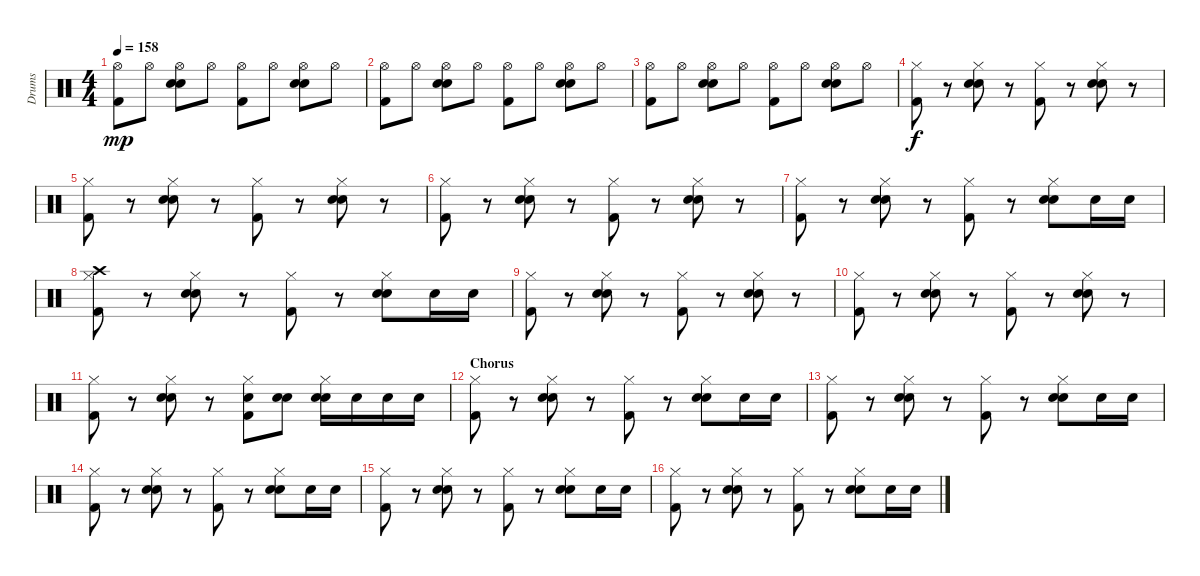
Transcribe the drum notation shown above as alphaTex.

\track ("Drums" "Drums") {instrument percussion}
\staff {score}
\articulation defaults
\ts (4 4)
\tempo 158
\clef neutral
\ks c
("Hi-Hat (open)" "Kick (hit) 2").8{dy mp} "Hi-Hat (open)".8 ("Hi-Hat (open)" "Snare (hit) 2" "Snare (hit) 2").8 "Hi-Hat (open)".8 ("Hi-Hat (open)" "Kick (hit) 2").8 "Hi-Hat (open)".8 ("Hi-Hat (open)" "Snare (hit) 2" "Snare (hit) 2").8 "Hi-Hat (open)".8 |
("Hi-Hat (open)" "Kick (hit) 2").8 "Hi-Hat (open)".8 ("Hi-Hat (open)" "Snare (hit) 2" "Snare (hit) 2").8 "Hi-Hat (open)".8 ("Hi-Hat (open)" "Kick (hit) 2").8 "Hi-Hat (open)".8 ("Hi-Hat (open)" "Snare (hit) 2" "Snare (hit) 2").8 "Hi-Hat (open)".8 |
("Hi-Hat (open)" "Kick (hit) 2").8 "Hi-Hat (open)".8 ("Hi-Hat (open)" "Snare (hit) 2" "Snare (hit) 2").8 "Hi-Hat (open)".8 ("Hi-Hat (open)" "Kick (hit) 2").8 "Hi-Hat (open)".8 ("Hi-Hat (open)" "Snare (hit) 2" "Snare (hit) 2").8 "Hi-Hat (open)".8 |
("Hi-Hat (closed)" "Kick (hit) 2").8{dy f} r.8 ("Hi-Hat (closed)" "Snare (hit) 2" "Snare (hit) 2").8 r.8 ("Hi-Hat (closed)" "Kick (hit) 2").8 r.8 ("Hi-Hat (closed)" "Snare (hit) 2" "Snare (hit) 2").8 r.8 |
("Hi-Hat (closed)" "Kick (hit) 2").8 r.8 ("Hi-Hat (closed)" "Snare (hit) 2" "Snare (hit) 2").8 r.8 ("Hi-Hat (closed)" "Kick (hit) 2").8 r.8 ("Hi-Hat (closed)" "Snare (hit) 2" "Snare (hit) 2").8 r.8 |
("Hi-Hat (closed)" "Kick (hit) 2").8 r.8 ("Hi-Hat (closed)" "Snare (hit) 2" "Snare (hit) 2").8 r.8 ("Hi-Hat (closed)" "Kick (hit) 2").8 r.8 ("Hi-Hat (closed)" "Snare (hit) 2" "Snare (hit) 2").8 r.8 |
("Hi-Hat (closed)" "Kick (hit) 2").8 r.8 ("Hi-Hat (closed)" "Snare (hit) 2" "Snare (hit) 2").8 r.8 ("Hi-Hat (closed)" "Kick (hit) 2").8 r.8 ("Hi-Hat (closed)" "Snare (hit) 2" "Snare (hit) 2").8 "Snare (hit) 2".16 "Snare (hit) 2".16 |
("Hi-Hat (closed)" "Crash high (hit)" "Kick (hit) 2").8 r.8 ("Hi-Hat (closed)" "Snare (hit) 2" "Snare (hit) 2").8 r.8 ("Hi-Hat (closed)" "Kick (hit) 2").8 r.8 ("Hi-Hat (closed)" "Snare (hit) 2" "Snare (hit) 2").8 "Snare (hit) 2".16 "Snare (hit) 2".16 |
("Hi-Hat (closed)" "Kick (hit) 2").8 r.8 ("Hi-Hat (closed)" "Snare (hit) 2" "Snare (hit) 2").8 r.8 ("Hi-Hat (closed)" "Kick (hit) 2").8 r.8 ("Hi-Hat (closed)" "Snare (hit) 2" "Snare (hit) 2").8 r.8 |
("Hi-Hat (closed)" "Kick (hit) 2").8 r.8 ("Hi-Hat (closed)" "Snare (hit) 2" "Snare (hit) 2").8 r.8 ("Hi-Hat (closed)" "Kick (hit) 2").8 r.8 ("Hi-Hat (closed)" "Snare (hit) 2" "Snare (hit) 2").8 r.8 |
("Hi-Hat (closed)" "Kick (hit) 2").8 r.8 ("Hi-Hat (closed)" "Snare (hit) 2" "Snare (hit) 2").8 r.8 ("Hi-Hat (closed)" "Snare (hit) 2" "Kick (hit) 2").8 ("Snare (hit) 2" "Snare (hit) 2").8 ("Hi-Hat (closed)" "Snare (hit) 2" "Snare (hit) 2").16 "Snare (hit) 2".16 "Snare (hit) 2".16 "Snare (hit) 2".16 |
\section ("" "Chorus")
("Hi-Hat (closed)" "Kick (hit) 2").8 r.8 ("Hi-Hat (closed)" "Snare (hit) 2" "Snare (hit) 2").8 r.8 ("Hi-Hat (closed)" "Kick (hit) 2").8 r.8 ("Hi-Hat (closed)" "Snare (hit) 2" "Snare (hit) 2").8 "Snare (hit) 2".16 "Snare (hit) 2".16 |
("Hi-Hat (closed)" "Kick (hit) 2").8 r.8 ("Hi-Hat (closed)" "Snare (hit) 2" "Snare (hit) 2").8 r.8 ("Hi-Hat (closed)" "Kick (hit) 2").8 r.8 ("Hi-Hat (closed)" "Snare (hit) 2" "Snare (hit) 2").8 "Snare (hit) 2".16 "Snare (hit) 2".16 |
("Hi-Hat (closed)" "Kick (hit) 2").8 r.8 ("Hi-Hat (closed)" "Snare (hit) 2" "Snare (hit) 2").8 r.8 ("Hi-Hat (closed)" "Kick (hit) 2").8 r.8 ("Hi-Hat (closed)" "Snare (hit) 2" "Snare (hit) 2").8 "Snare (hit) 2".16 "Snare (hit) 2".16 |
("Hi-Hat (closed)" "Kick (hit) 2").8 r.8 ("Hi-Hat (closed)" "Snare (hit) 2" "Snare (hit) 2").8 r.8 ("Hi-Hat (closed)" "Kick (hit) 2").8 r.8 ("Hi-Hat (closed)" "Snare (hit) 2" "Snare (hit) 2").8 "Snare (hit) 2".16 "Snare (hit) 2".16 |
("Hi-Hat (closed)" "Kick (hit) 2").8 r.8 ("Hi-Hat (closed)" "Snare (hit) 2" "Snare (hit) 2").8 r.8 ("Hi-Hat (closed)" "Kick (hit) 2").8 r.8 ("Hi-Hat (closed)" "Snare (hit) 2" "Snare (hit) 2").8 "Snare (hit) 2".16 "Snare (hit) 2".16
